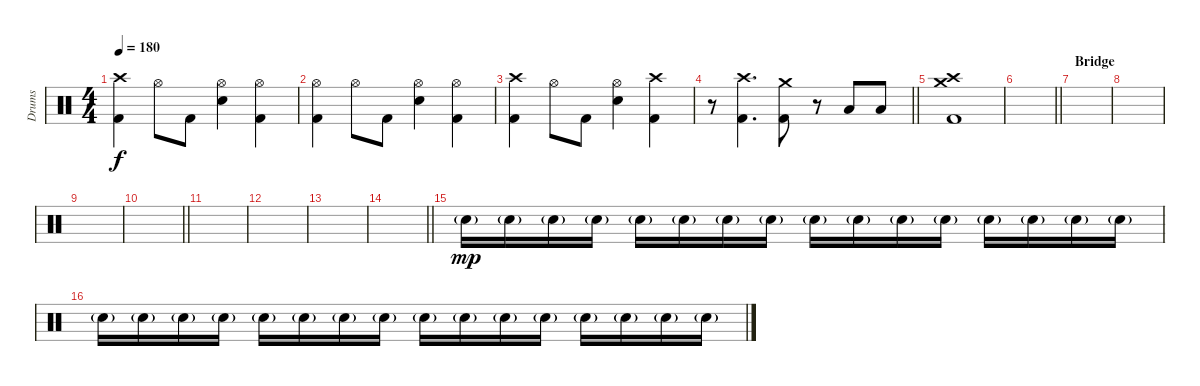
\track ("Drums" "Drums") {instrument percussion}
\staff {score}
\articulation defaults
\ts (4 4)
\tempo 180
\clef neutral
\ks c
("Crash high (hit)" "Kick (hit) 2").4{dy f} "Hi-Hat (open)".8 "Kick (hit) 2".8 ("Electric Snare (hit)" "Hi-Hat (open)").4 ("Hi-Hat (open)" "Kick (hit) 2").4 |
("Hi-Hat (open)" "Kick (hit) 2").4 "Hi-Hat (open)".8 "Kick (hit) 2".8 ("Electric Snare (hit)" "Hi-Hat (open)").4 ("Hi-Hat (open)" "Kick (hit) 2").4 |
("Crash high (hit)" "Kick (hit) 2").4 "Hi-Hat (open)".8 "Kick (hit) 2".8 ("Electric Snare (hit)" "Hi-Hat (open)").4 ("Crash high (hit)" "Kick (hit) 2").4 |
\barLineRight lightlight
r.8 ("Crash high (hit)" "Kick (hit) 2").4{d} ("Crash medium (hit)" "Kick (hit) 2").8 r.8 "Low Floor Tom (hit)".8 "Low Floor Tom (hit)".8 |
("Crash high (hit)" "Crash medium (hit)" "Kick (hit) 2").1 |
\barLineRight lightlight
|
\section ("" "Bridge")
|
|
|
\barLineRight lightlight
|
|
|
|
\barLineRight lightlight
|
"Electric Snare (hit)"{g}.16{dy mp} "Electric Snare (hit)"{g}.16 "Electric Snare (hit)"{g}.16 "Electric Snare (hit)"{g}.16 "Electric Snare (hit)"{g}.16 "Electric Snare (hit)"{g}.16 "Electric Snare (hit)"{g}.16 "Electric Snare (hit)"{g}.16 "Electric Snare (hit)"{g}.16 "Electric Snare (hit)"{g}.16 "Electric Snare (hit)"{g}.16 "Electric Snare (hit)"{g}.16 "Electric Snare (hit)"{g}.16 "Electric Snare (hit)"{g}.16 "Electric Snare (hit)"{g}.16 "Electric Snare (hit)"{g}.16 |
"Electric Snare (hit)"{g}.16 "Electric Snare (hit)"{g}.16 "Electric Snare (hit)"{g}.16 "Electric Snare (hit)"{g}.16 "Electric Snare (hit)"{g}.16 "Electric Snare (hit)"{g}.16 "Electric Snare (hit)"{g}.16 "Electric Snare (hit)"{g}.16 "Electric Snare (hit)"{g}.16 "Electric Snare (hit)"{g}.16 "Electric Snare (hit)"{g}.16 "Electric Snare (hit)"{g}.16 "Electric Snare (hit)"{g}.16 "Electric Snare (hit)"{g}.16 "Electric Snare (hit)"{g}.16 "Electric Snare (hit)"{g}.16
